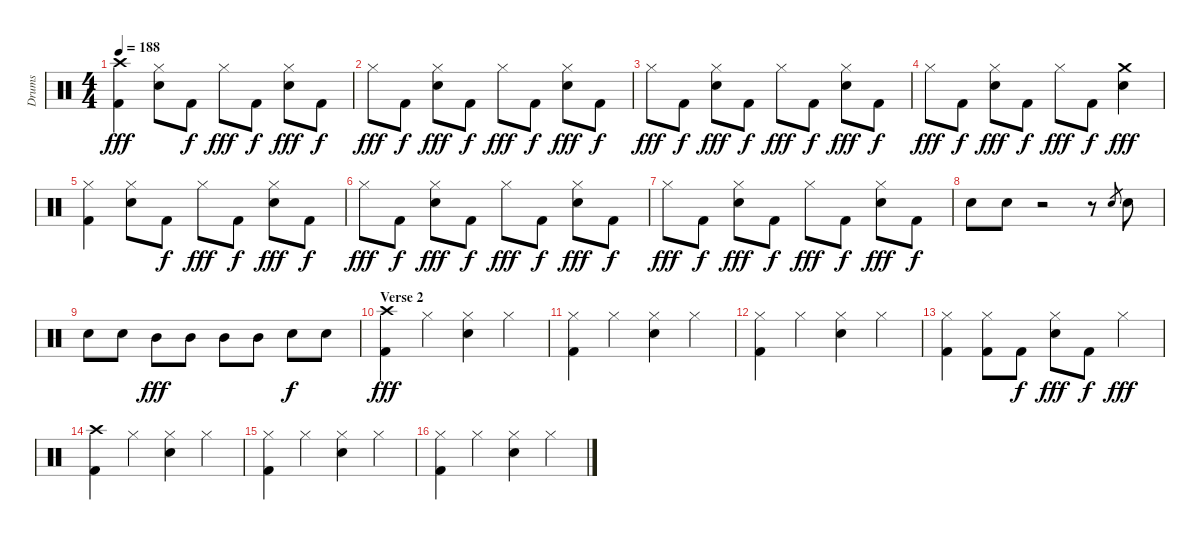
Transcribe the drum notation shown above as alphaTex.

\track ("Drums" "Drums") {instrument percussion}
\staff {score}
\articulation defaults
\ts (4 4)
\tempo 188
\clef neutral
\ks c
("Crash high (hit)" "Kick (hit) 2").4{dy fff} ("Hi-Hat (closed)" "Snare (hit) 2").8 "Kick (hit) 2".8{dy f} "Hi-Hat (closed)".8{dy fff} "Kick (hit) 2".8{dy f} ("Hi-Hat (closed)" "Snare (hit) 2").8{dy fff} "Kick (hit) 2".8{dy f} |
"Hi-Hat (closed)".8{dy fff} "Kick (hit) 2".8{dy f} ("Hi-Hat (closed)" "Snare (hit) 2").8{dy fff} "Kick (hit) 2".8{dy f} "Hi-Hat (closed)".8{dy fff} "Kick (hit) 2".8{dy f} ("Hi-Hat (closed)" "Snare (hit) 2").8{dy fff} "Kick (hit) 2".8{dy f} |
"Hi-Hat (closed)".8{dy fff} "Kick (hit) 2".8{dy f} ("Hi-Hat (closed)" "Snare (hit) 2").8{dy fff} "Kick (hit) 2".8{dy f} "Hi-Hat (closed)".8{dy fff} "Kick (hit) 2".8{dy f} ("Hi-Hat (closed)" "Snare (hit) 2").8{dy fff} "Kick (hit) 2".8{dy f} |
"Hi-Hat (closed)".8{dy fff} "Kick (hit) 2".8{dy f} ("Hi-Hat (closed)" "Snare (hit) 2").8{dy fff} "Kick (hit) 2".8{dy f} "Hi-Hat (closed)".8{dy fff} "Kick (hit) 2".8{dy f} ("Crash medium (hit)" "Snare (hit) 2").4{dy fff} |
("Hi-Hat (closed)" "Kick (hit) 2").4 ("Hi-Hat (closed)" "Snare (hit) 2").8 "Kick (hit) 2".8{dy f} "Hi-Hat (closed)".8{dy fff} "Kick (hit) 2".8{dy f} ("Hi-Hat (closed)" "Snare (hit) 2").8{dy fff} "Kick (hit) 2".8{dy f} |
"Hi-Hat (closed)".8{dy fff} "Kick (hit) 2".8{dy f} ("Hi-Hat (closed)" "Snare (hit) 2").8{dy fff} "Kick (hit) 2".8{dy f} "Hi-Hat (closed)".8{dy fff} "Kick (hit) 2".8{dy f} ("Hi-Hat (closed)" "Snare (hit) 2").8{dy fff} "Kick (hit) 2".8{dy f} |
"Hi-Hat (closed)".8{dy fff} "Kick (hit) 2".8{dy f} ("Hi-Hat (closed)" "Snare (hit) 2").8{dy fff} "Kick (hit) 2".8{dy f} "Hi-Hat (closed)".8{dy fff} "Kick (hit) 2".8{dy f} ("Hi-Hat (closed)" "Snare (hit) 2").8{dy fff} "Kick (hit) 2".8{dy f} |
"Snare (hit) 2".8 "Snare (hit) 2".8 r.2 r.8 "Snare (hit) 2".8{gr} "Snare (hit) 2".8 |
"Snare (hit) 2".8 "Snare (hit) 2".8 "Mid Tom (hit)".8{dy fff} "Mid Tom (hit)".8 "Mid Tom (hit)".8 "Mid Tom (hit)".8 "Snare (hit) 2".8{dy f} "Snare (hit) 2".8 |
\section ("" "Verse 2")
("Crash high (hit)" "Kick (hit) 2").4{dy fff} "Hi-Hat (closed)".4 ("Hi-Hat (closed)" "Snare (hit) 2").4 "Hi-Hat (closed)".4 |
("Hi-Hat (closed)" "Kick (hit) 2").4 "Hi-Hat (closed)".4 ("Hi-Hat (closed)" "Snare (hit) 2").4 "Hi-Hat (closed)".4 |
("Hi-Hat (closed)" "Kick (hit) 2").4 "Hi-Hat (closed)".4 ("Hi-Hat (closed)" "Snare (hit) 2").4 "Hi-Hat (closed)".4 |
("Hi-Hat (closed)" "Kick (hit) 2").4 ("Hi-Hat (closed)" "Kick (hit) 2").8 "Kick (hit) 2".8{dy f} ("Hi-Hat (closed)" "Snare (hit) 2").8{dy fff} "Kick (hit) 2".8{dy f} "Hi-Hat (closed)".4{dy fff} |
("Crash high (hit)" "Kick (hit) 2").4 "Hi-Hat (closed)".4 ("Hi-Hat (closed)" "Snare (hit) 2").4 "Hi-Hat (closed)".4 |
("Hi-Hat (closed)" "Kick (hit) 2").4 "Hi-Hat (closed)".4 ("Hi-Hat (closed)" "Snare (hit) 2").4 "Hi-Hat (closed)".4 |
("Hi-Hat (closed)" "Kick (hit) 2").4 "Hi-Hat (closed)".4 ("Hi-Hat (closed)" "Snare (hit) 2").4 "Hi-Hat (closed)".4
